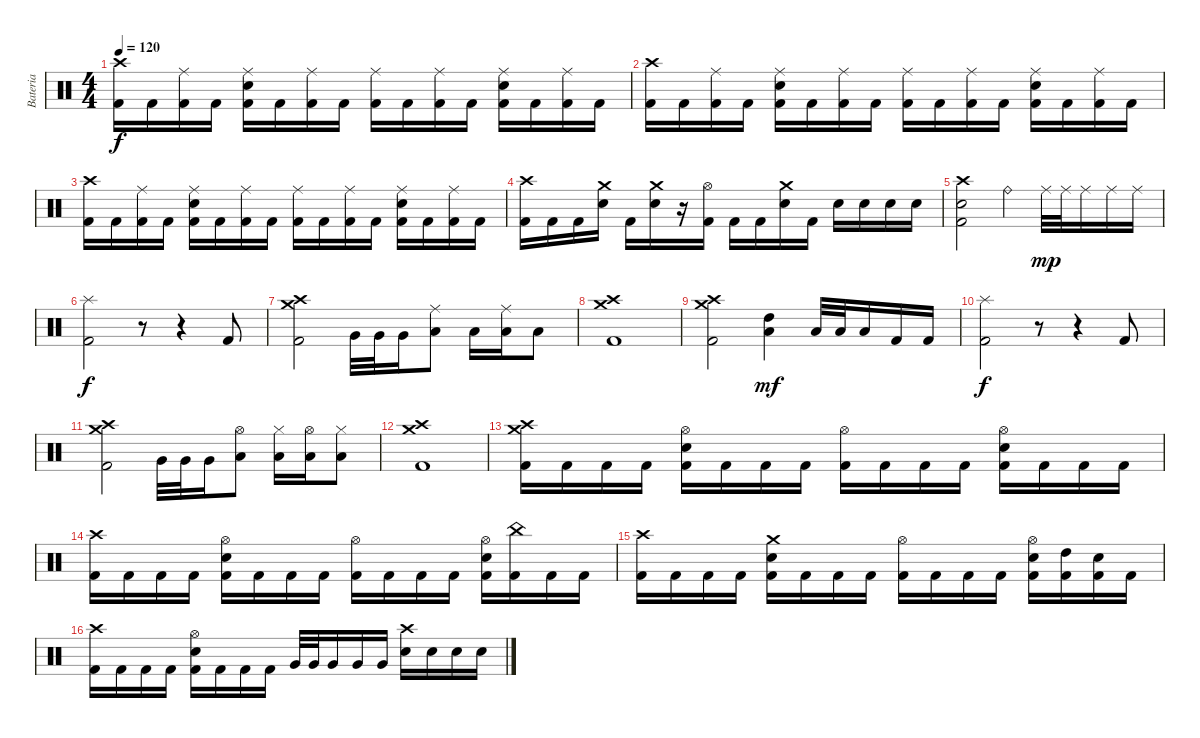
\track ("Bateria" "Bateria") {instrument percussion}
\staff {score}
\articulation defaults
\ts (4 4)
\tempo 120
\clef neutral
\ks c
("Crash high (hit)" "Kick (hit) 2").16{dy f} "Kick (hit) 2".16 ("Ride (middle)" "Kick (hit) 2").16 "Kick (hit) 2".16 ("Ride (middle)" "Electric Snare (hit)" "Kick (hit) 2").16 "Kick (hit) 2".16 ("Ride (middle)" "Kick (hit) 2").16 "Kick (hit) 2".16 ("Ride (middle)" "Kick (hit) 2").16 "Kick (hit) 2".16 ("Ride (middle)" "Kick (hit) 2").16 "Kick (hit) 2".16 ("Ride (middle)" "Electric Snare (hit)" "Kick (hit) 2").16 "Kick (hit) 2".16 ("Ride (middle)" "Kick (hit) 2").16 "Kick (hit) 2".16 |
("Crash high (hit)" "Kick (hit) 2").16 "Kick (hit) 2".16 ("Ride (middle)" "Kick (hit) 2").16 "Kick (hit) 2".16 ("Ride (middle)" "Electric Snare (hit)" "Kick (hit) 2").16 "Kick (hit) 2".16 ("Ride (middle)" "Kick (hit) 2").16 "Kick (hit) 2".16 ("Ride (middle)" "Kick (hit) 2").16 "Kick (hit) 2".16 ("Ride (middle)" "Kick (hit) 2").16 "Kick (hit) 2".16 ("Ride (middle)" "Electric Snare (hit)" "Kick (hit) 2").16 "Kick (hit) 2".16 ("Ride (middle)" "Kick (hit) 2").16 "Kick (hit) 2".16 |
("Crash high (hit)" "Kick (hit) 2").16 "Kick (hit) 2".16 ("Ride (middle)" "Kick (hit) 2").16 "Kick (hit) 2".16 ("Ride (middle)" "Electric Snare (hit)" "Kick (hit) 2").16 "Kick (hit) 2".16 ("Ride (middle)" "Kick (hit) 2").16 "Kick (hit) 2".16 ("Ride (middle)" "Kick (hit) 2").16 "Kick (hit) 2".16 ("Ride (middle)" "Kick (hit) 2").16 "Kick (hit) 2".16 ("Ride (middle)" "Electric Snare (hit)" "Kick (hit) 2").16 "Kick (hit) 2".16 ("Ride (middle)" "Kick (hit) 2").16 "Kick (hit) 2".16 |
("Crash high (hit)" "Kick (hit) 2").16 "Kick (hit) 2".16 "Kick (hit) 2".16 ("Crash medium (hit)" "Electric Snare (hit)").16 "Kick (hit) 2".16 ("Crash medium (hit)" "Electric Snare (hit)").16 r.16 ("Hi-Hat (open)" "Kick (hit) 2").16 "Kick (hit) 2".16 "Kick (hit) 2".16 ("Crash medium (hit)" "Electric Snare (hit)").16 "Kick (hit) 2".16 "Electric Snare (hit)".16 "Electric Snare (hit)".16 "Electric Snare (hit)".16 "Electric Snare (hit)".16 |
("Crash high (hit)" "Electric Snare (hit)" "Kick (hit) 2").2 "Ride (bell)".4 "Ride (middle)".32{dy mp} "Ride (middle)".32 "Ride (middle)".16 "Ride (middle)".16 "Ride (middle)".16 |
("Splash (hit)" "Kick (hit) 2").2{dy f} r.8 r.4 "Kick (hit) 2".8 |
("Crash medium (hit)" "Crash high (hit)" "Kick (hit) 2").2 "Very Low Tom (hit)".32 "Very Low Tom (hit)".32 "Very Low Tom (hit)".16 ("Ride (middle)" "Low Floor Tom (hit)").8 "Low Floor Tom (hit)".16 ("Ride (middle)" "Low Floor Tom (hit)").16 "Low Floor Tom (hit)".8 |
("Crash medium (hit)" "Crash high (hit)" "Kick (hit) 2").1 |
("Crash medium (hit)" "Crash high (hit)" "Kick (hit) 2").2 ("High Tom (hit)" "Low Floor Tom (hit)").4{dy mf} "Low Tom (hit)".32 "Low Tom (hit)".32 "Low Tom (hit)".16 "Kick (hit) 2".16 "Kick (hit) 2".16 |
("Splash (hit)" "Kick (hit) 2").2{dy f} r.8 r.4 "Kick (hit) 2".8 |
("Crash medium (hit)" "Crash high (hit)" "Kick (hit) 2").2 "Very Low Tom (hit)".32 "Very Low Tom (hit)".32 "Very Low Tom (hit)".16 ("Hi-Hat (open)" "Low Floor Tom (hit)").8 ("Hi-Hat (closed)" "Low Floor Tom (hit)").16 ("Hi-Hat (open)" "Low Floor Tom (hit)").16 ("Hi-Hat (closed)" "Low Floor Tom (hit)").8 |
("Crash medium (hit)" "Crash high (hit)" "Kick (hit) 2").1 |
("Crash medium (hit)" "Crash high (hit)" "Kick (hit) 2").16 "Kick (hit) 2".16 "Kick (hit) 2".16 "Kick (hit) 2".16 ("Hi-Hat (open)" "Electric Snare (hit)" "Kick (hit) 2").16 "Kick (hit) 2".16 "Kick (hit) 2".16 "Kick (hit) 2".16 ("Hi-Hat (open)" "Kick (hit) 2").16 "Kick (hit) 2".16 "Kick (hit) 2".16 "Kick (hit) 2".16 ("Hi-Hat (open)" "Electric Snare (hit)" "Kick (hit) 2").16 "Kick (hit) 2".16 "Kick (hit) 2".16 "Kick (hit) 2".16 |
("Crash high (hit)" "Kick (hit) 2").16 "Kick (hit) 2".16 "Kick (hit) 2".16 "Kick (hit) 2".16 ("Hi-Hat (open)" "Electric Snare (hit)" "Kick (hit) 2").16 "Kick (hit) 2".16 "Kick (hit) 2".16 "Kick (hit) 2".16 ("Hi-Hat (open)" "Kick (hit) 2").16 "Kick (hit) 2".16 "Kick (hit) 2".16 "Kick (hit) 2".16 ("Hi-Hat (open)" "Electric Snare (hit)" "Kick (hit) 2").16 ("China (hit)" "Kick (hit) 2").16 "Kick (hit) 2".16 "Kick (hit) 2".16 |
("Crash high (hit)" "Kick (hit) 2").16 "Kick (hit) 2".16 "Kick (hit) 2".16 "Kick (hit) 2".16 ("Crash medium (hit)" "Electric Snare (hit)" "Kick (hit) 2").16 "Kick (hit) 2".16 "Kick (hit) 2".16 "Kick (hit) 2".16 ("Hi-Hat (open)" "Kick (hit) 2").16 "Kick (hit) 2".16 "Kick (hit) 2".16 "Kick (hit) 2".16 ("Hi-Hat (open)" "Electric Snare (hit)" "Kick (hit) 2").16 ("High Tom (hit)" "Kick (hit) 2").16 ("Electric Snare (hit)" "Kick (hit) 2").16 "Kick (hit) 2".16 |
("Crash high (hit)" "Kick (hit) 2").16 "Kick (hit) 2".16 "Kick (hit) 2".16 "Kick (hit) 2".16 ("Hi-Hat (open)" "Electric Snare (hit)" "Kick (hit) 2").16 "Kick (hit) 2".16 "Kick (hit) 2".16 "Kick (hit) 2".16 "Very Low Tom (hit)".32 "Very Low Tom (hit)".32 "Very Low Tom (hit)".16 "Very Low Tom (hit)".16 "Very Low Tom (hit)".16 ("Crash high (hit)" "Electric Snare (hit)").16 "Electric Snare (hit)".16 "Electric Snare (hit)".16 "Electric Snare (hit)".16
